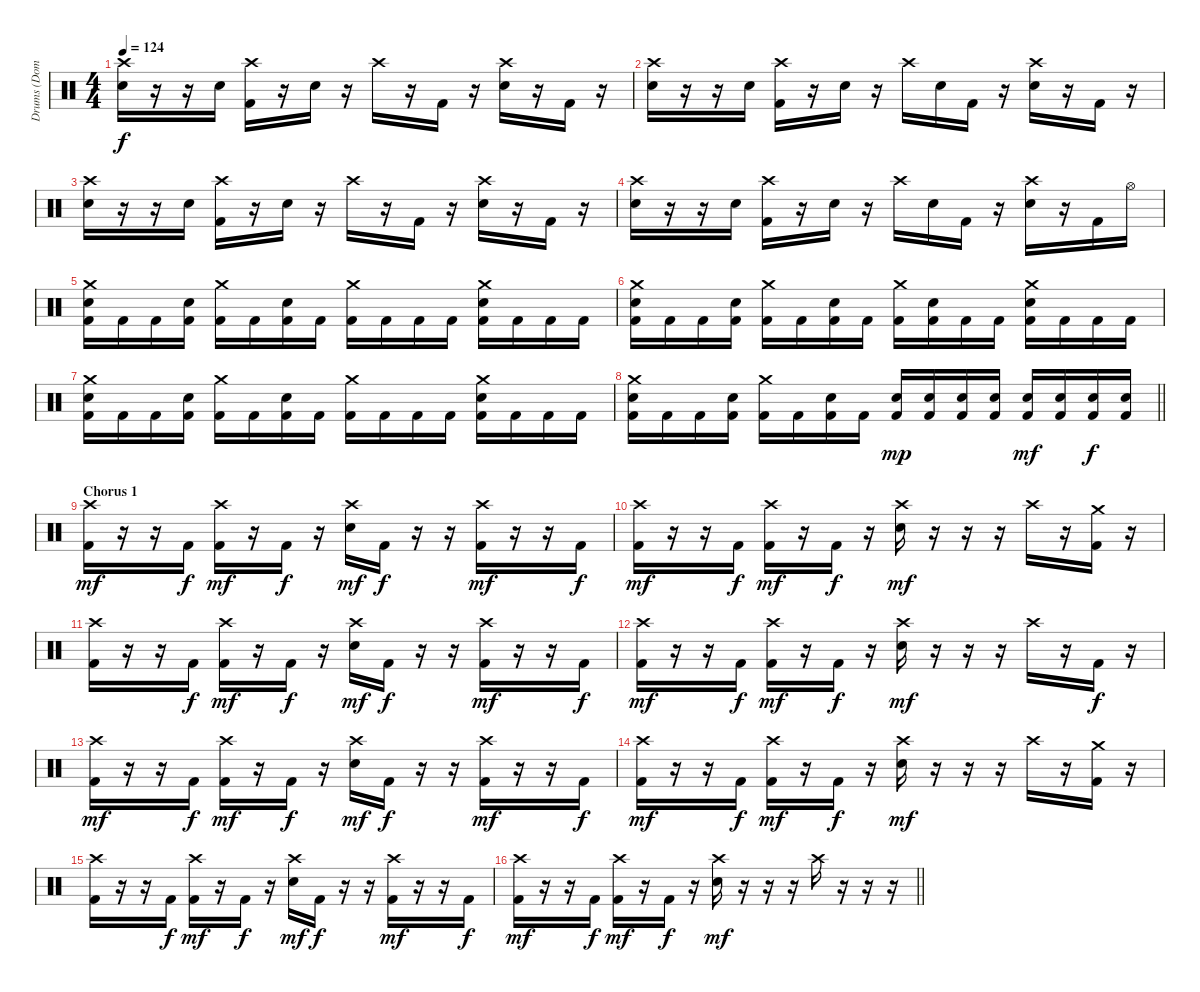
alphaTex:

\track ("Drums (Dominik)" "Drums (Dom") {instrument percussion}
\staff {score}
\articulation defaults
\ts (4 4)
\tempo 124
\clef neutral
\ks c
("Crash high (hit)" "Electric Snare (hit)").16{dy f} r.16 r.16 "Electric Snare (hit)".16 ("Crash high (hit)" "Kick (hit) 2").16 r.16 "Electric Snare (hit)".16 r.16 "Crash high (hit)".16 r.16 "Kick (hit) 2".16 r.16 ("Crash high (hit)" "Electric Snare (hit)").16 r.16 "Kick (hit) 2".16 r.16 |
("Crash high (hit)" "Electric Snare (hit)").16 r.16 r.16 "Electric Snare (hit)".16 ("Crash high (hit)" "Kick (hit) 2").16 r.16 "Electric Snare (hit)".16 r.16 "Crash high (hit)".16 "Electric Snare (hit)".16 "Kick (hit) 2".16 r.16 ("Crash high (hit)" "Electric Snare (hit)").16 r.16 "Kick (hit) 2".16 r.16 |
("Crash high (hit)" "Electric Snare (hit)").16 r.16 r.16 "Electric Snare (hit)".16 ("Crash high (hit)" "Kick (hit) 2").16 r.16 "Electric Snare (hit)".16 r.16 "Crash high (hit)".16 r.16 "Kick (hit) 2".16 r.16 ("Crash high (hit)" "Electric Snare (hit)").16 r.16 "Kick (hit) 2".16 r.16 |
("Crash high (hit)" "Electric Snare (hit)").16 r.16 r.16 "Electric Snare (hit)".16 ("Crash high (hit)" "Kick (hit) 2").16 r.16 "Electric Snare (hit)".16 r.16 "Crash high (hit)".16 "Electric Snare (hit)".16 "Kick (hit) 2".16 r.16 ("Crash high (hit)" "Electric Snare (hit)").16 r.16 "Kick (hit) 2".16 "Hi-Hat (open)".16 |
("Crash medium (hit)" "Electric Snare (hit)" "Kick (hit) 2").16 "Kick (hit) 2".16 "Kick (hit) 2".16 ("Electric Snare (hit)" "Kick (hit) 2").16 ("Crash medium (hit)" "Kick (hit) 2").16 "Kick (hit) 2".16 ("Electric Snare (hit)" "Kick (hit) 2").16 "Kick (hit) 2".16 ("Crash medium (hit)" "Kick (hit) 2").16 "Kick (hit) 2".16 "Kick (hit) 2".16 "Kick (hit) 2".16 ("Crash medium (hit)" "Electric Snare (hit)" "Kick (hit) 2").16 "Kick (hit) 2".16 "Kick (hit) 2".16 "Kick (hit) 2".16 |
("Crash medium (hit)" "Electric Snare (hit)" "Kick (hit) 2").16 "Kick (hit) 2".16 "Kick (hit) 2".16 ("Electric Snare (hit)" "Kick (hit) 2").16 ("Crash medium (hit)" "Kick (hit) 2").16 "Kick (hit) 2".16 ("Electric Snare (hit)" "Kick (hit) 2").16 "Kick (hit) 2".16 ("Crash medium (hit)" "Kick (hit) 2").16 ("Electric Snare (hit)" "Kick (hit) 2").16 "Kick (hit) 2".16 "Kick (hit) 2".16 ("Crash medium (hit)" "Electric Snare (hit)" "Kick (hit) 2").16 "Kick (hit) 2".16 "Kick (hit) 2".16 "Kick (hit) 2".16 |
("Crash medium (hit)" "Electric Snare (hit)" "Kick (hit) 2").16 "Kick (hit) 2".16 "Kick (hit) 2".16 ("Electric Snare (hit)" "Kick (hit) 2").16 ("Crash medium (hit)" "Kick (hit) 2").16 "Kick (hit) 2".16 ("Electric Snare (hit)" "Kick (hit) 2").16 "Kick (hit) 2".16 ("Crash medium (hit)" "Kick (hit) 2").16 "Kick (hit) 2".16 "Kick (hit) 2".16 "Kick (hit) 2".16 ("Crash medium (hit)" "Electric Snare (hit)" "Kick (hit) 2").16 "Kick (hit) 2".16 "Kick (hit) 2".16 "Kick (hit) 2".16 |
\barLineRight lightlight
("Crash medium (hit)" "Electric Snare (hit)" "Kick (hit) 2").16 "Kick (hit) 2".16 "Kick (hit) 2".16 ("Electric Snare (hit)" "Kick (hit) 2").16 ("Crash medium (hit)" "Kick (hit) 2").16 "Kick (hit) 2".16 ("Electric Snare (hit)" "Kick (hit) 2").16 "Kick (hit) 2".16 ("Electric Snare (hit)" "Kick (hit) 2").16{dy mp} ("Electric Snare (hit)" "Kick (hit) 2").16 ("Electric Snare (hit)" "Kick (hit) 2").16 ("Electric Snare (hit)" "Kick (hit) 2").16 ("Electric Snare (hit)" "Kick (hit) 2").16{dy mf} ("Electric Snare (hit)" "Kick (hit) 2").16 ("Electric Snare (hit)" "Kick (hit) 2").16{dy f} ("Electric Snare (hit)" "Kick (hit) 2").16 |
\section ("" "Chorus 1")
("Crash high (hit)" "Kick (hit) 2").16{dy mf} r.16 r.16 "Kick (hit) 2".16{dy f} ("Crash high (hit)" "Kick (hit) 2").16{dy mf} r.16 "Kick (hit) 2".16{dy f} r.16 ("Crash high (hit)" "Electric Snare (hit)").16{dy mf} "Kick (hit) 2".16{dy f} r.16 r.16 ("Crash high (hit)" "Kick (hit) 2").16{dy mf} r.16 r.16 "Kick (hit) 2".16{dy f} |
("Crash high (hit)" "Kick (hit) 2").16{dy mf} r.16 r.16 "Kick (hit) 2".16{dy f} ("Crash high (hit)" "Kick (hit) 2").16{dy mf} r.16 "Kick (hit) 2".16{dy f} r.16 ("Crash high (hit)" "Electric Snare (hit)").16{dy mf} r.16 r.16 r.16 "Crash high (hit)".16 r.16 ("Crash medium (hit)" "Kick (hit) 2").16 r.16 |
("Crash high (hit)" "Kick (hit) 2").16 r.16 r.16 "Kick (hit) 2".16{dy f} ("Crash high (hit)" "Kick (hit) 2").16{dy mf} r.16 "Kick (hit) 2".16{dy f} r.16 ("Crash high (hit)" "Electric Snare (hit)").16{dy mf} "Kick (hit) 2".16{dy f} r.16 r.16 ("Crash high (hit)" "Kick (hit) 2").16{dy mf} r.16 r.16 "Kick (hit) 2".16{dy f} |
("Crash high (hit)" "Kick (hit) 2").16{dy mf} r.16 r.16 "Kick (hit) 2".16{dy f} ("Crash high (hit)" "Kick (hit) 2").16{dy mf} r.16 "Kick (hit) 2".16{dy f} r.16 ("Crash high (hit)" "Electric Snare (hit)").16{dy mf} r.16 r.16 r.16 "Crash high (hit)".16 r.16 "Kick (hit) 2".16{dy f} r.16 |
("Crash high (hit)" "Kick (hit) 2").16{dy mf} r.16 r.16 "Kick (hit) 2".16{dy f} ("Crash high (hit)" "Kick (hit) 2").16{dy mf} r.16 "Kick (hit) 2".16{dy f} r.16 ("Crash high (hit)" "Electric Snare (hit)").16{dy mf} "Kick (hit) 2".16{dy f} r.16 r.16 ("Crash high (hit)" "Kick (hit) 2").16{dy mf} r.16 r.16 "Kick (hit) 2".16{dy f} |
("Crash high (hit)" "Kick (hit) 2").16{dy mf} r.16 r.16 "Kick (hit) 2".16{dy f} ("Crash high (hit)" "Kick (hit) 2").16{dy mf} r.16 "Kick (hit) 2".16{dy f} r.16 ("Crash high (hit)" "Electric Snare (hit)").16{dy mf} r.16 r.16 r.16 "Crash high (hit)".16 r.16 ("Crash medium (hit)" "Kick (hit) 2").16 r.16 |
("Crash high (hit)" "Kick (hit) 2").16 r.16 r.16 "Kick (hit) 2".16{dy f} ("Crash high (hit)" "Kick (hit) 2").16{dy mf} r.16 "Kick (hit) 2".16{dy f} r.16 ("Crash high (hit)" "Electric Snare (hit)").16{dy mf} "Kick (hit) 2".16{dy f} r.16 r.16 ("Crash high (hit)" "Kick (hit) 2").16{dy mf} r.16 r.16 "Kick (hit) 2".16{dy f} |
\barLineRight lightlight
("Crash high (hit)" "Kick (hit) 2").16{dy mf} r.16 r.16 "Kick (hit) 2".16{dy f} ("Crash high (hit)" "Kick (hit) 2").16{dy mf} r.16 "Kick (hit) 2".16{dy f} r.16 ("Crash high (hit)" "Electric Snare (hit)").16{dy mf} r.16 r.16 r.16 "Crash high (hit)".16 r.16 r.16 r.16
